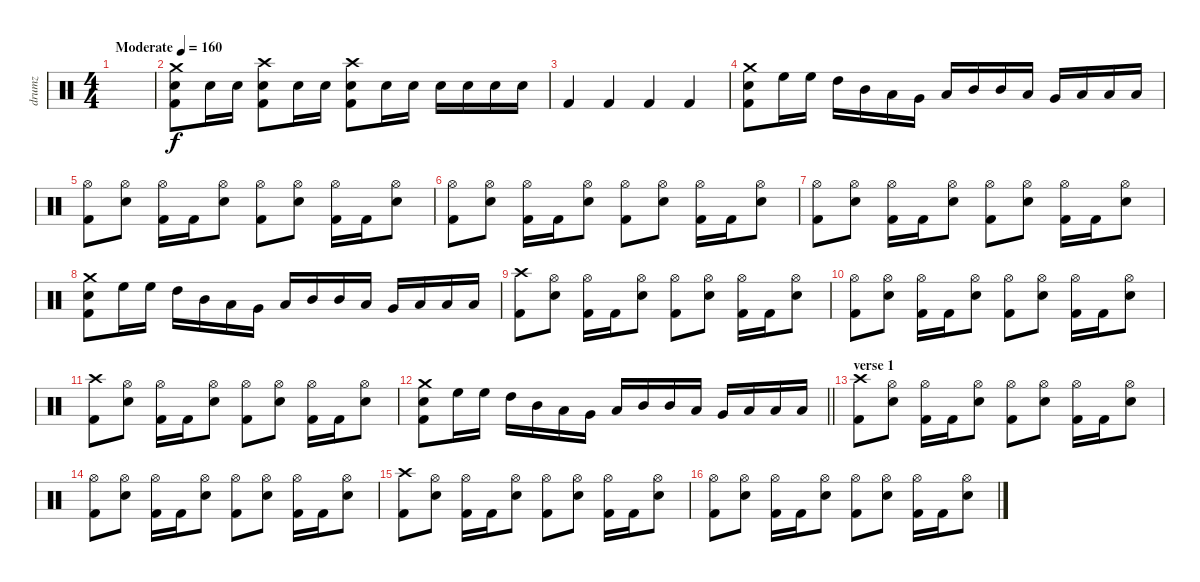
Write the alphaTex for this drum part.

\track ("drumz" "drumz") {instrument percussion}
\staff {score}
\articulation defaults
\ts (4 4)
\tempo (160 "Moderate")
\clef neutral
\ks c
|
("Crash medium (hit)" "Electric Snare (hit)" "Kick (hit) 2").8 "Electric Snare (hit)".16 "Electric Snare (hit)".16 ("Crash high (hit)" "Electric Snare (hit)" "Kick (hit) 2").8 "Electric Snare (hit)".16 "Electric Snare (hit)".16 ("Crash high (hit)" "Electric Snare (hit)" "Kick (hit) 2").8 "Electric Snare (hit)".16 "Electric Snare (hit)".16 "Electric Snare (hit)".16 "Electric Snare (hit)".16 "Electric Snare (hit)".16 "Electric Snare (hit)".16 |
"Kick (hit) 2".4 "Kick (hit) 2".4 "Kick (hit) 2".4 "Kick (hit) 2".4 |
("Crash medium (hit)" "Electric Snare (hit)" "Kick (hit) 2").8 "High Floor Tom (hit)".16 "High Floor Tom (hit)".16 "High Tom (hit)".16 "Mid Tom (hit)".16 "Low Tom (hit)".16 "Very Low Tom (hit)".16 "Low Floor Tom (hit)".16 "Mid Tom (hit)".16 "Mid Tom (hit)".16 "Low Tom (hit)".16 "Very Low Tom (hit)".16 "Low Floor Tom (hit)".16 "Low Floor Tom (hit)".16 "Low Floor Tom (hit)".16 |
("Hi-Hat (open)" "Kick (hit) 2").8 ("Hi-Hat (open)" "Electric Snare (hit)").8 ("Hi-Hat (open)" "Kick (hit) 2").16 "Kick (hit) 2".16 ("Hi-Hat (open)" "Electric Snare (hit)").8 ("Hi-Hat (open)" "Kick (hit) 2").8 ("Hi-Hat (open)" "Electric Snare (hit)").8 ("Hi-Hat (open)" "Kick (hit) 2").16 "Kick (hit) 2".16 ("Hi-Hat (open)" "Electric Snare (hit)").8 |
("Hi-Hat (open)" "Kick (hit) 2").8 ("Hi-Hat (open)" "Electric Snare (hit)").8 ("Hi-Hat (open)" "Kick (hit) 2").16 "Kick (hit) 2".16 ("Hi-Hat (open)" "Electric Snare (hit)").8 ("Hi-Hat (open)" "Kick (hit) 2").8 ("Hi-Hat (open)" "Electric Snare (hit)").8 ("Hi-Hat (open)" "Kick (hit) 2").16 "Kick (hit) 2".16 ("Hi-Hat (open)" "Electric Snare (hit)").8 |
("Hi-Hat (open)" "Kick (hit) 2").8 ("Hi-Hat (open)" "Electric Snare (hit)").8 ("Hi-Hat (open)" "Kick (hit) 2").16 "Kick (hit) 2".16 ("Hi-Hat (open)" "Electric Snare (hit)").8 ("Hi-Hat (open)" "Kick (hit) 2").8 ("Hi-Hat (open)" "Electric Snare (hit)").8 ("Hi-Hat (open)" "Kick (hit) 2").16 "Kick (hit) 2".16 ("Hi-Hat (open)" "Electric Snare (hit)").8 |
("Crash medium (hit)" "Electric Snare (hit)" "Kick (hit) 2").8 "High Floor Tom (hit)".16 "High Floor Tom (hit)".16 "High Tom (hit)".16 "Mid Tom (hit)".16 "Low Tom (hit)".16 "Very Low Tom (hit)".16 "Low Floor Tom (hit)".16 "Mid Tom (hit)".16 "Mid Tom (hit)".16 "Low Tom (hit)".16 "Very Low Tom (hit)".16 "Low Floor Tom (hit)".16 "Low Floor Tom (hit)".16 "Low Floor Tom (hit)".16 |
("Crash high (hit)" "Kick (hit) 2").8 ("Hi-Hat (open)" "Electric Snare (hit)").8 ("Hi-Hat (open)" "Kick (hit) 2").16 "Kick (hit) 2".16 ("Hi-Hat (open)" "Electric Snare (hit)").8 ("Hi-Hat (open)" "Kick (hit) 2").8 ("Hi-Hat (open)" "Electric Snare (hit)").8 ("Hi-Hat (open)" "Kick (hit) 2").16 "Kick (hit) 2".16 ("Hi-Hat (open)" "Electric Snare (hit)").8 |
("Hi-Hat (open)" "Kick (hit) 2").8 ("Hi-Hat (open)" "Electric Snare (hit)").8 ("Hi-Hat (open)" "Kick (hit) 2").16 "Kick (hit) 2".16 ("Hi-Hat (open)" "Electric Snare (hit)").8 ("Hi-Hat (open)" "Kick (hit) 2").8 ("Hi-Hat (open)" "Electric Snare (hit)").8 ("Hi-Hat (open)" "Kick (hit) 2").16 "Kick (hit) 2".16 ("Hi-Hat (open)" "Electric Snare (hit)").8 |
("Crash high (hit)" "Kick (hit) 2").8 ("Hi-Hat (open)" "Electric Snare (hit)").8 ("Hi-Hat (open)" "Kick (hit) 2").16 "Kick (hit) 2".16 ("Hi-Hat (open)" "Electric Snare (hit)").8 ("Hi-Hat (open)" "Kick (hit) 2").8 ("Hi-Hat (open)" "Electric Snare (hit)").8 ("Hi-Hat (open)" "Kick (hit) 2").16 "Kick (hit) 2".16 ("Hi-Hat (open)" "Electric Snare (hit)").8 |
\barLineRight lightlight
("Crash medium (hit)" "Electric Snare (hit)" "Kick (hit) 2").8 "High Floor Tom (hit)".16 "High Floor Tom (hit)".16 "High Tom (hit)".16 "Mid Tom (hit)".16 "Low Tom (hit)".16 "Very Low Tom (hit)".16 "Low Floor Tom (hit)".16 "Mid Tom (hit)".16 "Mid Tom (hit)".16 "Low Tom (hit)".16 "Very Low Tom (hit)".16 "Low Floor Tom (hit)".16 "Low Floor Tom (hit)".16 "Low Floor Tom (hit)".16 |
\section ("" "verse 1")
("Crash high (hit)" "Kick (hit) 2").8 ("Hi-Hat (open)" "Electric Snare (hit)").8 ("Hi-Hat (open)" "Kick (hit) 2").16 "Kick (hit) 2".16 ("Hi-Hat (open)" "Electric Snare (hit)").8 ("Hi-Hat (open)" "Kick (hit) 2").8 ("Hi-Hat (open)" "Electric Snare (hit)").8 ("Hi-Hat (open)" "Kick (hit) 2").16 "Kick (hit) 2".16 ("Hi-Hat (open)" "Electric Snare (hit)").8 |
("Hi-Hat (open)" "Kick (hit) 2").8 ("Hi-Hat (open)" "Electric Snare (hit)").8 ("Hi-Hat (open)" "Kick (hit) 2").16 "Kick (hit) 2".16 ("Hi-Hat (open)" "Electric Snare (hit)").8 ("Hi-Hat (open)" "Kick (hit) 2").8 ("Hi-Hat (open)" "Electric Snare (hit)").8 ("Hi-Hat (open)" "Kick (hit) 2").16 "Kick (hit) 2".16 ("Hi-Hat (open)" "Electric Snare (hit)").8 |
("Crash high (hit)" "Kick (hit) 2").8 ("Hi-Hat (open)" "Electric Snare (hit)").8 ("Hi-Hat (open)" "Kick (hit) 2").16 "Kick (hit) 2".16 ("Hi-Hat (open)" "Electric Snare (hit)").8 ("Hi-Hat (open)" "Kick (hit) 2").8 ("Hi-Hat (open)" "Electric Snare (hit)").8 ("Hi-Hat (open)" "Kick (hit) 2").16 "Kick (hit) 2".16 ("Hi-Hat (open)" "Electric Snare (hit)").8 |
("Hi-Hat (open)" "Kick (hit) 2").8 ("Hi-Hat (open)" "Electric Snare (hit)").8 ("Hi-Hat (open)" "Kick (hit) 2").16 "Kick (hit) 2".16 ("Hi-Hat (open)" "Electric Snare (hit)").8 ("Hi-Hat (open)" "Kick (hit) 2").8 ("Hi-Hat (open)" "Electric Snare (hit)").8 ("Hi-Hat (open)" "Kick (hit) 2").16 "Kick (hit) 2".16 ("Hi-Hat (open)" "Electric Snare (hit)").8
